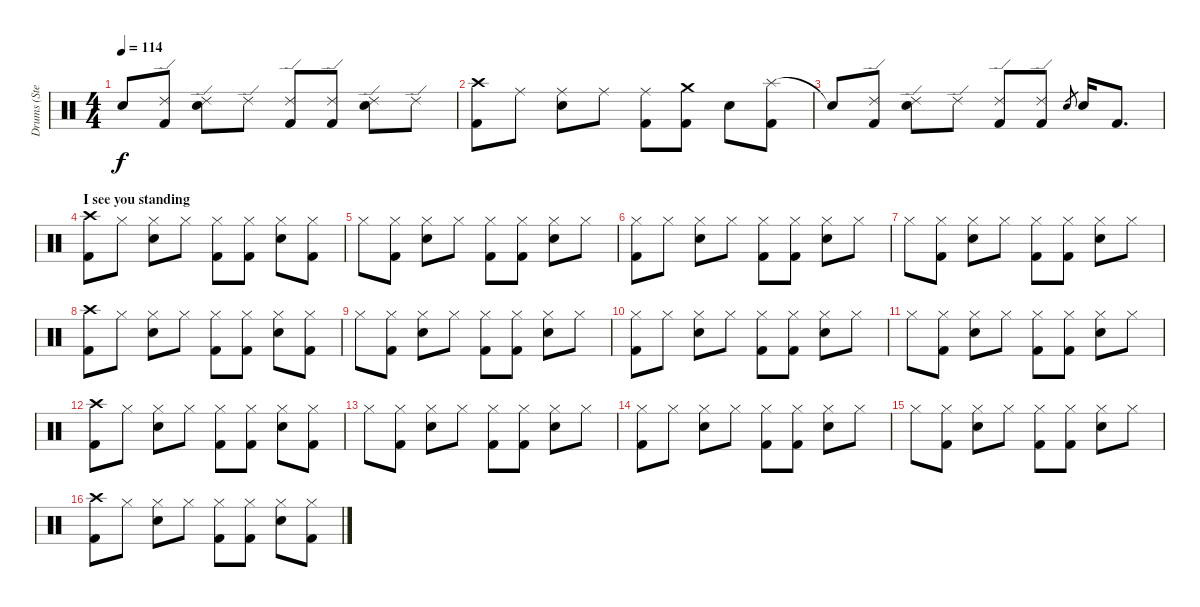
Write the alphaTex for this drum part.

\track ("Drums (Steven)" "Drums (Ste") {instrument percussion}
\staff {score}
\articulation defaults
\ts (4 4)
\tempo 114
\clef neutral
\ks c "Snare (hit)"{t}.8{dy f}
("Ride (edge) 2" "Kick (hit) 2").8 ("Ride (edge) 2" "Snare (hit) 2").8 "Ride (edge) 2".8 ("Ride (edge) 2" "Kick (hit) 2").8 ("Ride (edge) 2" "Kick (hit) 2").8 ("Ride (edge) 2" "Snare (hit) 2").8 "Ride (edge) 2".8 |
("Crash high (hit)" "Kick (hit) 2").8 "Ride (middle)".8 ("Ride (middle)" "Snare (hit) 2").8 "Ride (middle)".8 ("Ride (middle)" "Kick (hit) 2").8 ("Crash medium (hit)" "Kick (hit) 2").8 "Snare (hit) 2".8 ("Splash (hit)" "Kick (hit) 2").8 |
"Snare (hit)"{t}.8 ("Ride (edge) 2" "Kick (hit) 2").8 ("Ride (edge) 2" "Snare (hit) 2").8 "Ride (edge) 2".8 ("Ride (edge) 2" "Kick (hit) 2").8 ("Ride (edge) 2" "Kick (hit) 2").8 "Snare (hit) 2".8{gr} "Snare (hit) 2".16 "Kick (hit) 2".8{d} |
\section ("" "I see you standing")
("Crash high (hit)" "Kick (hit) 2").8 "Hi-Hat (closed)".8 ("Hi-Hat (closed)" "Snare (hit) 2").8 "Hi-Hat (closed)".8 ("Hi-Hat (closed)" "Kick (hit) 2").8 ("Hi-Hat (closed)" "Kick (hit) 2").8 ("Hi-Hat (closed)" "Snare (hit) 2").8 ("Hi-Hat (closed)" "Kick (hit) 2").8 |
"Hi-Hat (closed)".8 ("Hi-Hat (closed)" "Kick (hit) 2").8 ("Hi-Hat (closed)" "Snare (hit) 2").8 "Hi-Hat (closed)".8 ("Hi-Hat (closed)" "Kick (hit) 2").8 ("Hi-Hat (closed)" "Kick (hit) 2").8 ("Hi-Hat (closed)" "Snare (hit) 2").8 "Hi-Hat (closed)".8 |
("Hi-Hat (closed)" "Kick (hit) 2").8 "Hi-Hat (closed)".8 ("Hi-Hat (closed)" "Snare (hit) 2").8 "Hi-Hat (closed)".8 ("Hi-Hat (closed)" "Kick (hit) 2").8 ("Hi-Hat (closed)" "Kick (hit) 2").8 ("Hi-Hat (closed)" "Snare (hit) 2").8 "Hi-Hat (closed)".8 |
"Hi-Hat (closed)".8 ("Hi-Hat (closed)" "Kick (hit) 2").8 ("Hi-Hat (closed)" "Snare (hit) 2").8 "Hi-Hat (closed)".8 ("Hi-Hat (closed)" "Kick (hit) 2").8 ("Hi-Hat (closed)" "Kick (hit) 2").8 ("Hi-Hat (closed)" "Snare (hit) 2").8 "Hi-Hat (closed)".8 |
("Crash high (hit)" "Kick (hit) 2").8 "Hi-Hat (closed)".8 ("Hi-Hat (closed)" "Snare (hit) 2").8 "Hi-Hat (closed)".8 ("Hi-Hat (closed)" "Kick (hit) 2").8 ("Hi-Hat (closed)" "Kick (hit) 2").8 ("Hi-Hat (closed)" "Snare (hit) 2").8 ("Hi-Hat (closed)" "Kick (hit) 2").8 |
"Hi-Hat (closed)".8 ("Hi-Hat (closed)" "Kick (hit) 2").8 ("Hi-Hat (closed)" "Snare (hit) 2").8 "Hi-Hat (closed)".8 ("Hi-Hat (closed)" "Kick (hit) 2").8 ("Hi-Hat (closed)" "Kick (hit) 2").8 ("Hi-Hat (closed)" "Snare (hit) 2").8 "Hi-Hat (closed)".8 |
("Hi-Hat (closed)" "Kick (hit) 2").8 "Hi-Hat (closed)".8 ("Hi-Hat (closed)" "Snare (hit) 2").8 "Hi-Hat (closed)".8 ("Hi-Hat (closed)" "Kick (hit) 2").8 ("Hi-Hat (closed)" "Kick (hit) 2").8 ("Hi-Hat (closed)" "Snare (hit) 2").8 "Hi-Hat (closed)".8 |
"Hi-Hat (closed)".8 ("Hi-Hat (closed)" "Kick (hit) 2").8 ("Hi-Hat (closed)" "Snare (hit) 2").8 "Hi-Hat (closed)".8 ("Hi-Hat (closed)" "Kick (hit) 2").8 ("Hi-Hat (closed)" "Kick (hit) 2").8 ("Hi-Hat (closed)" "Snare (hit) 2").8 "Hi-Hat (closed)".8 |
("Crash high (hit)" "Kick (hit) 2").8 "Hi-Hat (closed)".8 ("Hi-Hat (closed)" "Snare (hit) 2").8 "Hi-Hat (closed)".8 ("Hi-Hat (closed)" "Kick (hit) 2").8 ("Hi-Hat (closed)" "Kick (hit) 2").8 ("Hi-Hat (closed)" "Snare (hit) 2").8 ("Hi-Hat (closed)" "Kick (hit) 2").8 |
"Hi-Hat (closed)".8 ("Hi-Hat (closed)" "Kick (hit) 2").8 ("Hi-Hat (closed)" "Snare (hit) 2").8 "Hi-Hat (closed)".8 ("Hi-Hat (closed)" "Kick (hit) 2").8 ("Hi-Hat (closed)" "Kick (hit) 2").8 ("Hi-Hat (closed)" "Snare (hit) 2").8 "Hi-Hat (closed)".8 |
("Hi-Hat (closed)" "Kick (hit) 2").8 "Hi-Hat (closed)".8 ("Hi-Hat (closed)" "Snare (hit) 2").8 "Hi-Hat (closed)".8 ("Hi-Hat (closed)" "Kick (hit) 2").8 ("Hi-Hat (closed)" "Kick (hit) 2").8 ("Hi-Hat (closed)" "Snare (hit) 2").8 "Hi-Hat (closed)".8 |
"Hi-Hat (closed)".8 ("Hi-Hat (closed)" "Kick (hit) 2").8 ("Hi-Hat (closed)" "Snare (hit) 2").8 "Hi-Hat (closed)".8 ("Hi-Hat (closed)" "Kick (hit) 2").8 ("Hi-Hat (closed)" "Kick (hit) 2").8 ("Hi-Hat (closed)" "Snare (hit) 2").8 "Hi-Hat (closed)".8 |
("Crash high (hit)" "Kick (hit) 2").8 "Hi-Hat (closed)".8 ("Hi-Hat (closed)" "Snare (hit) 2").8 "Hi-Hat (closed)".8 ("Hi-Hat (closed)" "Kick (hit) 2").8 ("Hi-Hat (closed)" "Kick (hit) 2").8 ("Hi-Hat (closed)" "Snare (hit) 2").8 ("Hi-Hat (closed)" "Kick (hit) 2").8
